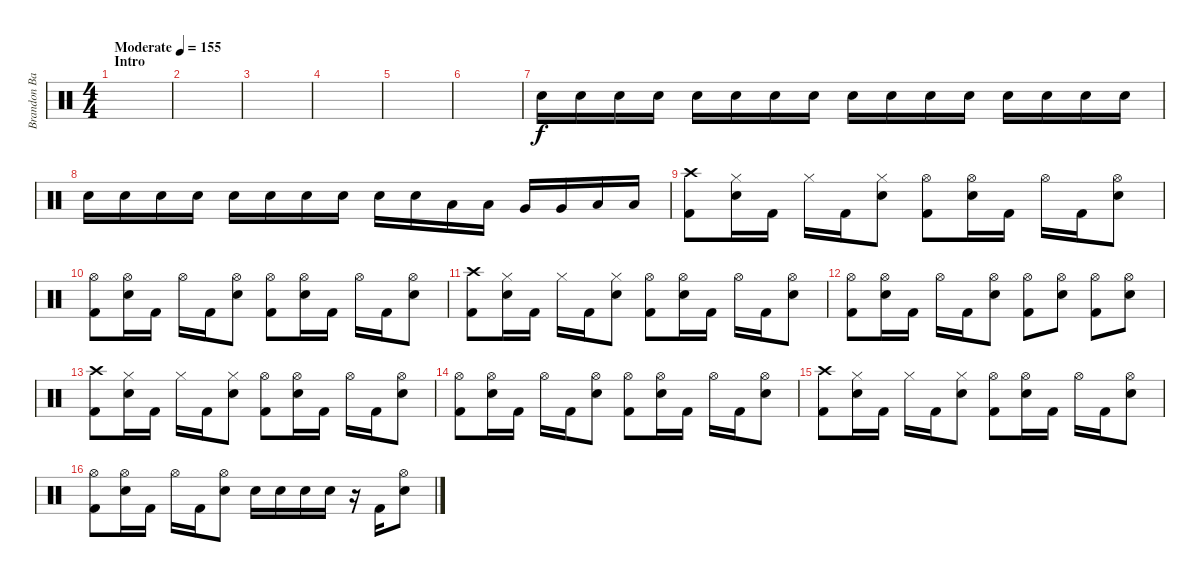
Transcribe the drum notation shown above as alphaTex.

\track ("Brandon Barnes - Drums" "Brandon Ba") {instrument percussion}
\staff {score}
\articulation defaults
\ts (4 4)
\section ("" "Intro")
\tempo (155 "Moderate")
\clef neutral
\ks c
|
|
|
|
|
|
"Snare (hit) 2".16 "Snare (hit) 2".16 "Snare (hit) 2".16 "Snare (hit) 2".16 "Snare (hit) 2".16 "Snare (hit) 2".16 "Snare (hit) 2".16 "Snare (hit) 2".16 "Snare (hit) 2".16 "Snare (hit) 2".16 "Snare (hit) 2".16 "Snare (hit) 2".16 "Snare (hit) 2".16 "Snare (hit) 2".16 "Snare (hit) 2".16 "Snare (hit) 2".16 |
"Snare (hit) 2".16 "Snare (hit) 2".16 "Snare (hit) 2".16 "Snare (hit) 2".16 "Snare (hit) 2".16 "Snare (hit) 2".16 "Snare (hit) 2".16 "Snare (hit) 2".16 "Snare (hit) 2".16 "Snare (hit) 2".16 "Low Tom (hit)".16 "Low Tom (hit)".16 "Very Low Tom (hit)".16 "Very Low Tom (hit)".16 "Low Floor Tom (hit)".16 "Low Floor Tom (hit)".16 |
("Kick (hit) 2" "Crash high (hit)").8 ("Snare (hit) 2" "Hi-Hat (closed)").16 "Kick (hit) 2".16 "Hi-Hat (closed)".16 "Kick (hit) 2".16 ("Snare (hit) 2" "Hi-Hat (closed)").8 ("Kick (hit) 2" "Hi-Hat (open)").8 ("Snare (hit) 2" "Hi-Hat (open)").16 "Kick (hit) 2".16 "Hi-Hat (open)".16 "Kick (hit) 2".16 ("Snare (hit) 2" "Hi-Hat (open)").8 |
("Kick (hit) 2" "Hi-Hat (open)").8 ("Snare (hit) 2" "Hi-Hat (open)").16 "Kick (hit) 2".16 "Hi-Hat (open)".16 "Kick (hit) 2".16 ("Snare (hit) 2" "Hi-Hat (open)").8 ("Kick (hit) 2" "Hi-Hat (open)").8 ("Snare (hit) 2" "Hi-Hat (open)").16 "Kick (hit) 2".16 "Hi-Hat (open)".16 "Kick (hit) 2".16 ("Snare (hit) 2" "Hi-Hat (open)").8 |
("Kick (hit) 2" "Crash high (hit)").8 ("Snare (hit) 2" "Hi-Hat (closed)").16 "Kick (hit) 2".16 "Hi-Hat (closed)".16 "Kick (hit) 2".16 ("Snare (hit) 2" "Hi-Hat (closed)").8 ("Kick (hit) 2" "Hi-Hat (open)").8 ("Snare (hit) 2" "Hi-Hat (open)").16 "Kick (hit) 2".16 "Hi-Hat (open)".16 "Kick (hit) 2".16 ("Snare (hit) 2" "Hi-Hat (open)").8 |
("Kick (hit) 2" "Hi-Hat (open)").8 ("Snare (hit) 2" "Hi-Hat (open)").16 "Kick (hit) 2".16 "Hi-Hat (open)".16 "Kick (hit) 2".16 ("Snare (hit) 2" "Hi-Hat (open)").8 ("Kick (hit) 2" "Hi-Hat (open)").8 ("Snare (hit) 2" "Hi-Hat (open)").8 ("Kick (hit) 2" "Hi-Hat (open)").8 ("Snare (hit) 2" "Hi-Hat (open)").8 |
("Kick (hit) 2" "Crash high (hit)").8 ("Snare (hit) 2" "Hi-Hat (closed)").16 "Kick (hit) 2".16 "Hi-Hat (closed)".16 "Kick (hit) 2".16 ("Snare (hit) 2" "Hi-Hat (closed)").8 ("Kick (hit) 2" "Hi-Hat (open)").8 ("Snare (hit) 2" "Hi-Hat (open)").16 "Kick (hit) 2".16 "Hi-Hat (open)".16 "Kick (hit) 2".16 ("Snare (hit) 2" "Hi-Hat (open)").8 |
("Kick (hit) 2" "Hi-Hat (open)").8 ("Snare (hit) 2" "Hi-Hat (open)").16 "Kick (hit) 2".16 "Hi-Hat (open)".16 "Kick (hit) 2".16 ("Snare (hit) 2" "Hi-Hat (open)").8 ("Kick (hit) 2" "Hi-Hat (open)").8 ("Snare (hit) 2" "Hi-Hat (open)").16 "Kick (hit) 2".16 "Hi-Hat (open)".16 "Kick (hit) 2".16 ("Snare (hit) 2" "Hi-Hat (open)").8 |
("Kick (hit) 2" "Crash high (hit)").8 ("Snare (hit) 2" "Hi-Hat (closed)").16 "Kick (hit) 2".16 "Hi-Hat (closed)".16 "Kick (hit) 2".16 ("Snare (hit) 2" "Hi-Hat (closed)").8 ("Kick (hit) 2" "Hi-Hat (open)").8 ("Snare (hit) 2" "Hi-Hat (open)").16 "Kick (hit) 2".16 "Hi-Hat (open)".16 "Kick (hit) 2".16 ("Snare (hit) 2" "Hi-Hat (open)").8 |
("Kick (hit) 2" "Hi-Hat (open)").8 ("Snare (hit) 2" "Hi-Hat (open)").16 "Kick (hit) 2".16 "Hi-Hat (open)".16 "Kick (hit) 2".16 ("Snare (hit) 2" "Hi-Hat (open)").8 "Snare (hit) 2".16 "Snare (hit) 2".16 "Snare (hit) 2".16 "Snare (hit) 2".16 r.16 "Kick (hit) 2".16 ("Snare (hit) 2" "Hi-Hat (open)").8
